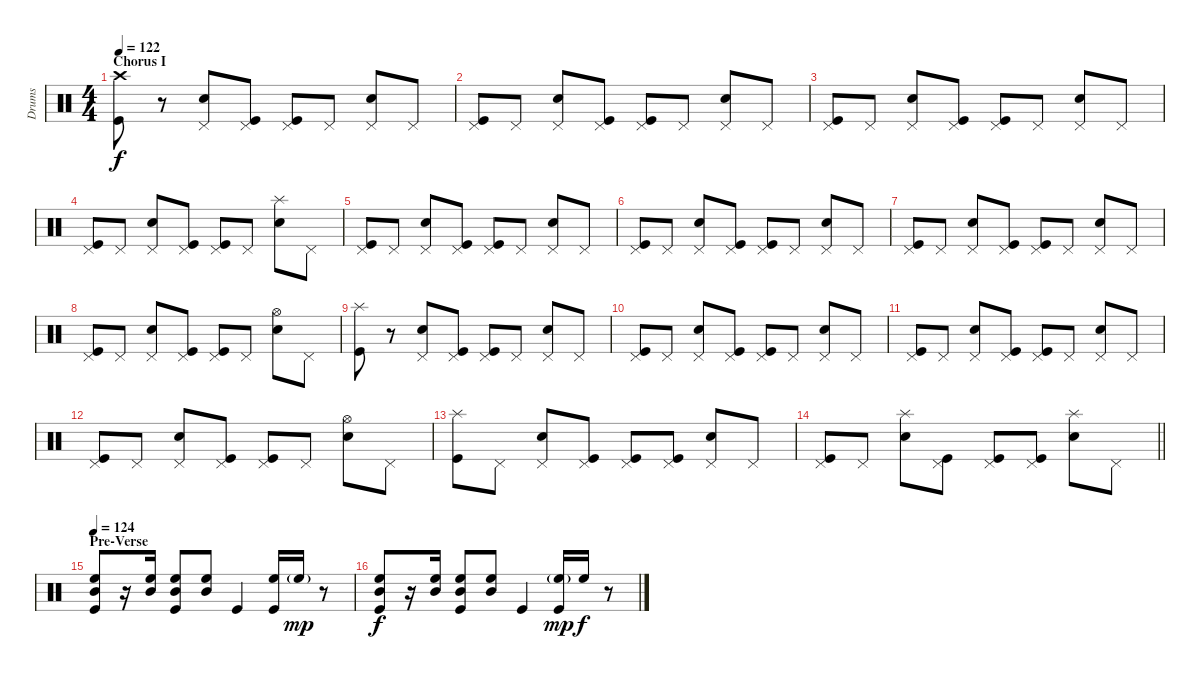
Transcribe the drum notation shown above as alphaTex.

\track ("Drums" "Drums") {instrument percussion}
\staff {score}
\articulation defaults
\ts (4 4)
\section ("" "Chorus I")
\tempo 122
\clef neutral
\ks c
("Crash high (hit)" "Kick (hit)").8{dy f} r.8 ("Pedal Hi-Hat (hit)" "Electric Snare (hit)").8 ("Pedal Hi-Hat (hit)" "Kick (hit)").8 ("Pedal Hi-Hat (hit)" "Kick (hit)").8 "Pedal Hi-Hat (hit)".8 ("Pedal Hi-Hat (hit)" "Electric Snare (hit)").8 "Pedal Hi-Hat (hit)".8 |
("Pedal Hi-Hat (hit)" "Kick (hit)").8 "Pedal Hi-Hat (hit)".8 ("Pedal Hi-Hat (hit)" "Electric Snare (hit)").8 ("Pedal Hi-Hat (hit)" "Kick (hit)").8 ("Pedal Hi-Hat (hit)" "Kick (hit)").8 "Pedal Hi-Hat (hit)".8 ("Pedal Hi-Hat (hit)" "Electric Snare (hit)").8 "Pedal Hi-Hat (hit)".8 |
("Pedal Hi-Hat (hit)" "Kick (hit)").8 "Pedal Hi-Hat (hit)".8 ("Pedal Hi-Hat (hit)" "Electric Snare (hit)").8 ("Pedal Hi-Hat (hit)" "Kick (hit)").8 ("Pedal Hi-Hat (hit)" "Kick (hit)").8 "Pedal Hi-Hat (hit)".8 ("Pedal Hi-Hat (hit)" "Electric Snare (hit)").8 "Pedal Hi-Hat (hit)".8 |
("Pedal Hi-Hat (hit)" "Kick (hit)").8 "Pedal Hi-Hat (hit)".8 ("Pedal Hi-Hat (hit)" "Electric Snare (hit)").8 ("Pedal Hi-Hat (hit)" "Kick (hit)").8 ("Pedal Hi-Hat (hit)" "Kick (hit)").8 "Pedal Hi-Hat (hit)".8 ("Splash (hit)" "Electric Snare (hit)").8 "Pedal Hi-Hat (hit)".8 |
("Pedal Hi-Hat (hit)" "Kick (hit)").8 "Pedal Hi-Hat (hit)".8 ("Pedal Hi-Hat (hit)" "Electric Snare (hit)").8 ("Pedal Hi-Hat (hit)" "Kick (hit)").8 ("Pedal Hi-Hat (hit)" "Kick (hit)").8 "Pedal Hi-Hat (hit)".8 ("Pedal Hi-Hat (hit)" "Electric Snare (hit)").8 "Pedal Hi-Hat (hit)".8 |
("Pedal Hi-Hat (hit)" "Kick (hit)").8 "Pedal Hi-Hat (hit)".8 ("Pedal Hi-Hat (hit)" "Electric Snare (hit)").8 ("Pedal Hi-Hat (hit)" "Kick (hit)").8 ("Pedal Hi-Hat (hit)" "Kick (hit)").8 "Pedal Hi-Hat (hit)".8 ("Pedal Hi-Hat (hit)" "Electric Snare (hit)").8 "Pedal Hi-Hat (hit)".8 |
("Pedal Hi-Hat (hit)" "Kick (hit)").8 "Pedal Hi-Hat (hit)".8 ("Pedal Hi-Hat (hit)" "Electric Snare (hit)").8 ("Pedal Hi-Hat (hit)" "Kick (hit)").8 ("Pedal Hi-Hat (hit)" "Kick (hit)").8 "Pedal Hi-Hat (hit)".8 ("Pedal Hi-Hat (hit)" "Electric Snare (hit)").8 "Pedal Hi-Hat (hit)".8 |
("Pedal Hi-Hat (hit)" "Kick (hit)").8 "Pedal Hi-Hat (hit)".8 ("Pedal Hi-Hat (hit)" "Electric Snare (hit)").8 ("Pedal Hi-Hat (hit)" "Kick (hit)").8 ("Pedal Hi-Hat (hit)" "Kick (hit)").8 "Pedal Hi-Hat (hit)".8 ("Hi-Hat (open)" "Electric Snare (hit)").8 "Pedal Hi-Hat (hit)".8 |
("Splash (hit)" "Kick (hit)").8 r.8 ("Pedal Hi-Hat (hit)" "Electric Snare (hit)").8 ("Pedal Hi-Hat (hit)" "Kick (hit)").8 ("Pedal Hi-Hat (hit)" "Kick (hit)").8 "Pedal Hi-Hat (hit)".8 ("Pedal Hi-Hat (hit)" "Electric Snare (hit)").8 "Pedal Hi-Hat (hit)".8 |
("Pedal Hi-Hat (hit)" "Kick (hit)").8 "Pedal Hi-Hat (hit)".8 ("Pedal Hi-Hat (hit)" "Electric Snare (hit)").8 ("Pedal Hi-Hat (hit)" "Kick (hit)").8 ("Pedal Hi-Hat (hit)" "Kick (hit)").8 "Pedal Hi-Hat (hit)".8 ("Pedal Hi-Hat (hit)" "Electric Snare (hit)").8 "Pedal Hi-Hat (hit)".8 |
("Pedal Hi-Hat (hit)" "Kick (hit)").8 "Pedal Hi-Hat (hit)".8 ("Pedal Hi-Hat (hit)" "Electric Snare (hit)").8 ("Pedal Hi-Hat (hit)" "Kick (hit)").8 ("Pedal Hi-Hat (hit)" "Kick (hit)").8 "Pedal Hi-Hat (hit)".8 ("Pedal Hi-Hat (hit)" "Electric Snare (hit)").8 "Pedal Hi-Hat (hit)".8 |
("Pedal Hi-Hat (hit)" "Kick (hit)").8 "Pedal Hi-Hat (hit)".8 ("Pedal Hi-Hat (hit)" "Electric Snare (hit)").8 ("Pedal Hi-Hat (hit)" "Kick (hit)").8 ("Pedal Hi-Hat (hit)" "Kick (hit)").8 "Pedal Hi-Hat (hit)".8 ("Hi-Hat (open)" "Electric Snare (hit)").8 "Pedal Hi-Hat (hit)".8 |
("Splash (hit)" "Kick (hit)").8 "Pedal Hi-Hat (hit)".8 ("Pedal Hi-Hat (hit)" "Electric Snare (hit)").8 ("Pedal Hi-Hat (hit)" "Kick (hit)").8 ("Pedal Hi-Hat (hit)" "Kick (hit)").8 ("Pedal Hi-Hat (hit)" "Kick (hit)").8 ("Pedal Hi-Hat (hit)" "Electric Snare (hit)").8 "Pedal Hi-Hat (hit)".8 |
\barLineRight lightlight
("Pedal Hi-Hat (hit)" "Kick (hit)").8 "Pedal Hi-Hat (hit)".8 ("Splash (hit)" "Electric Snare (hit)").8 ("Pedal Hi-Hat (hit)" "Kick (hit)").8 ("Pedal Hi-Hat (hit)" "Kick (hit)").8 ("Pedal Hi-Hat (hit)" "Kick (hit)").8 ("Splash (hit)" "Electric Snare (hit)").8 "Pedal Hi-Hat (hit)".8 |
\section ("" "Pre-Verse")
\tempo 124
("High Floor Tom (hit)" "Mid Tom (hit)" "Kick (hit)").8 r.16 ("High Floor Tom (hit)" "Mid Tom (hit)").16 ("High Floor Tom (hit)" "Mid Tom (hit)" "Kick (hit)").8 ("High Floor Tom (hit)" "Mid Tom (hit)").8 "Kick (hit)".4 ("High Floor Tom (hit)" "Kick (hit)").16 "High Floor Tom (hit)"{g}.16{dy mp} r.8 |
("High Floor Tom (hit)" "Mid Tom (hit)" "Kick (hit)").8{dy f} r.16 ("High Floor Tom (hit)" "Mid Tom (hit)").16 ("High Floor Tom (hit)" "Mid Tom (hit)" "Kick (hit)").8 ("High Floor Tom (hit)" "Mid Tom (hit)").8 "Kick (hit)".4 ("High Floor Tom (hit)"{g} "Kick (hit)").16{dy mp} "High Floor Tom (hit)".16{dy f} r.8
